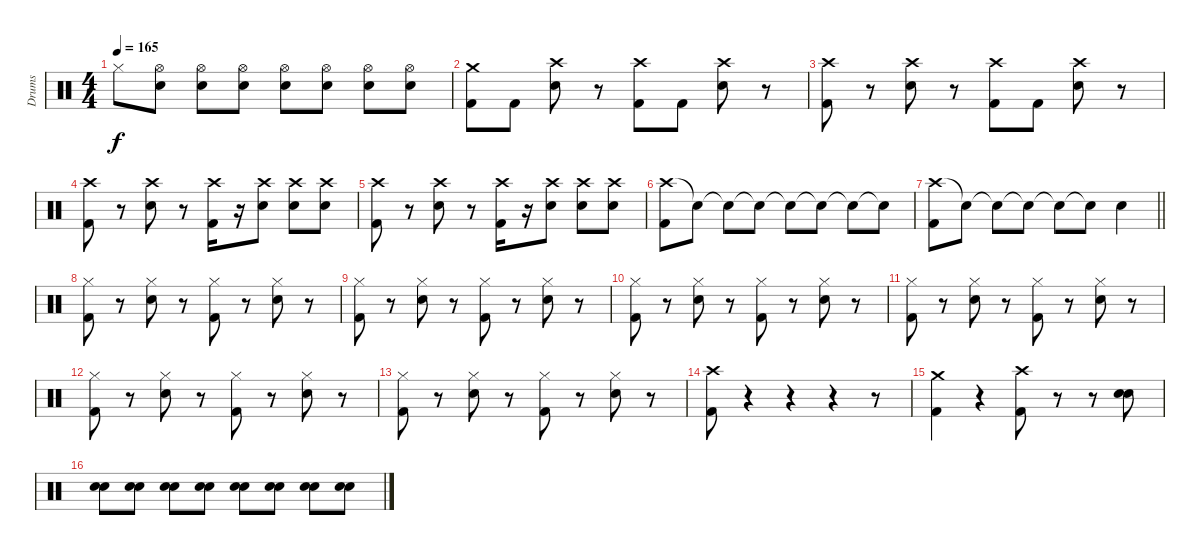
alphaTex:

\track ("Drums" "Drums") {instrument percussion}
\staff {score}
\articulation defaults
\ts (4 4)
\tempo 165
\clef neutral
\ks c "Hi-Hat (closed)".8{dy f}
("Hi-Hat (open)" "Electric Snare (hit)").8 ("Hi-Hat (open)" "Electric Snare (hit)").8 ("Hi-Hat (open)" "Electric Snare (hit)").8 ("Hi-Hat (open)" "Electric Snare (hit)").8 ("Hi-Hat (open)" "Electric Snare (hit)").8 ("Hi-Hat (open)" "Electric Snare (hit)").8 ("Hi-Hat (open)" "Electric Snare (hit)").8 |
("Crash medium (hit)" "Kick (hit) 2").8 "Kick (hit) 2".8 ("Crash high (hit)" "Electric Snare (hit)").8 r.8 ("Crash high (hit)" "Kick (hit) 2").8 "Kick (hit) 2".8 ("Crash high (hit)" "Electric Snare (hit)").8 r.8 |
("Crash high (hit)" "Kick (hit) 2").8 r.8 ("Crash high (hit)" "Electric Snare (hit)").8 r.8 ("Crash high (hit)" "Kick (hit) 2").8 "Kick (hit) 2".8 ("Crash high (hit)" "Electric Snare (hit)").8 r.8 |
("Crash high (hit)" "Kick (hit) 2").8 r.8 ("Crash high (hit)" "Electric Snare (hit)").8 r.8 ("Crash high (hit)" "Kick (hit) 2").16 r.16 ("Crash high (hit)" "Electric Snare (hit)").8 ("Crash high (hit)" "Electric Snare (hit)").8 ("Crash high (hit)" "Electric Snare (hit)").8 |
("Crash high (hit)" "Kick (hit) 2").8 r.8 ("Crash high (hit)" "Electric Snare (hit)").8 r.8 ("Crash high (hit)" "Kick (hit) 2").16 r.16 ("Crash high (hit)" "Electric Snare (hit)").8 ("Crash high (hit)" "Electric Snare (hit)").8 ("Crash high (hit)" "Electric Snare (hit)").8 |
("Crash high (hit)" "Kick (hit) 2").8 "Snare (hit)"{t}.8 "Snare (hit)"{t}.8 "Snare (hit)"{t}.8 "Snare (hit)"{t}.8 "Snare (hit)"{t}.8 "Snare (hit)"{t}.8 "Snare (hit)"{t}.8 |
\barLineRight lightlight
("Crash high (hit)" "Kick (hit) 2").8 "Snare (hit)"{t}.8 "Snare (hit)"{t}.8 "Snare (hit)"{t}.8 "Snare (hit)"{t}.8 "Snare (hit)"{t}.8 "Electric Snare (hit)".4 |
\section ("" "")
("Hi-Hat (closed)" "Kick (hit) 2").8 r.8 ("Hi-Hat (closed)" "Electric Snare (hit)").8 r.8 ("Hi-Hat (closed)" "Kick (hit) 2").8 r.8 ("Hi-Hat (closed)" "Electric Snare (hit)").8 r.8 |
("Hi-Hat (closed)" "Kick (hit) 2").8 r.8 ("Hi-Hat (closed)" "Electric Snare (hit)").8 r.8 ("Hi-Hat (closed)" "Kick (hit) 2").8 r.8 ("Hi-Hat (closed)" "Electric Snare (hit)").8 r.8 |
("Hi-Hat (closed)" "Kick (hit) 2").8 r.8 ("Hi-Hat (closed)" "Electric Snare (hit)").8 r.8 ("Hi-Hat (closed)" "Kick (hit) 2").8 r.8 ("Hi-Hat (closed)" "Electric Snare (hit)").8 r.8 |
("Hi-Hat (closed)" "Kick (hit) 2").8 r.8 ("Hi-Hat (closed)" "Electric Snare (hit)").8 r.8 ("Hi-Hat (closed)" "Kick (hit) 2").8 r.8 ("Hi-Hat (closed)" "Electric Snare (hit)").8 r.8 |
("Hi-Hat (closed)" "Kick (hit) 2").8 r.8 ("Hi-Hat (closed)" "Electric Snare (hit)").8 r.8 ("Hi-Hat (closed)" "Kick (hit) 2").8 r.8 ("Hi-Hat (closed)" "Electric Snare (hit)").8 r.8 |
("Hi-Hat (closed)" "Kick (hit) 2").8 r.8 ("Hi-Hat (closed)" "Electric Snare (hit)").8 r.8 ("Hi-Hat (closed)" "Kick (hit) 2").8 r.8 ("Hi-Hat (closed)" "Electric Snare (hit)").8 r.8 |
("Crash high (hit)" "Kick (hit) 2").8 r.4 r.4 r.4 r.8 |
("Crash medium (hit)" "Kick (hit) 2").4 r.4 ("Crash high (hit)" "Kick (hit) 2").8 r.8 r.8 ("Electric Snare (hit)" "Electric Snare (hit)").8{volume 6} |
("Electric Snare (hit)" "Electric Snare (hit)").8{volume 16} ("Electric Snare (hit)" "Electric Snare (hit)").8 ("Electric Snare (hit)" "Electric Snare (hit)").8 ("Electric Snare (hit)" "Electric Snare (hit)").8 ("Electric Snare (hit)" "Electric Snare (hit)").8 ("Electric Snare (hit)" "Electric Snare (hit)").8 ("Electric Snare (hit)" "Electric Snare (hit)").8 ("Electric Snare (hit)" "Electric Snare (hit)").8
